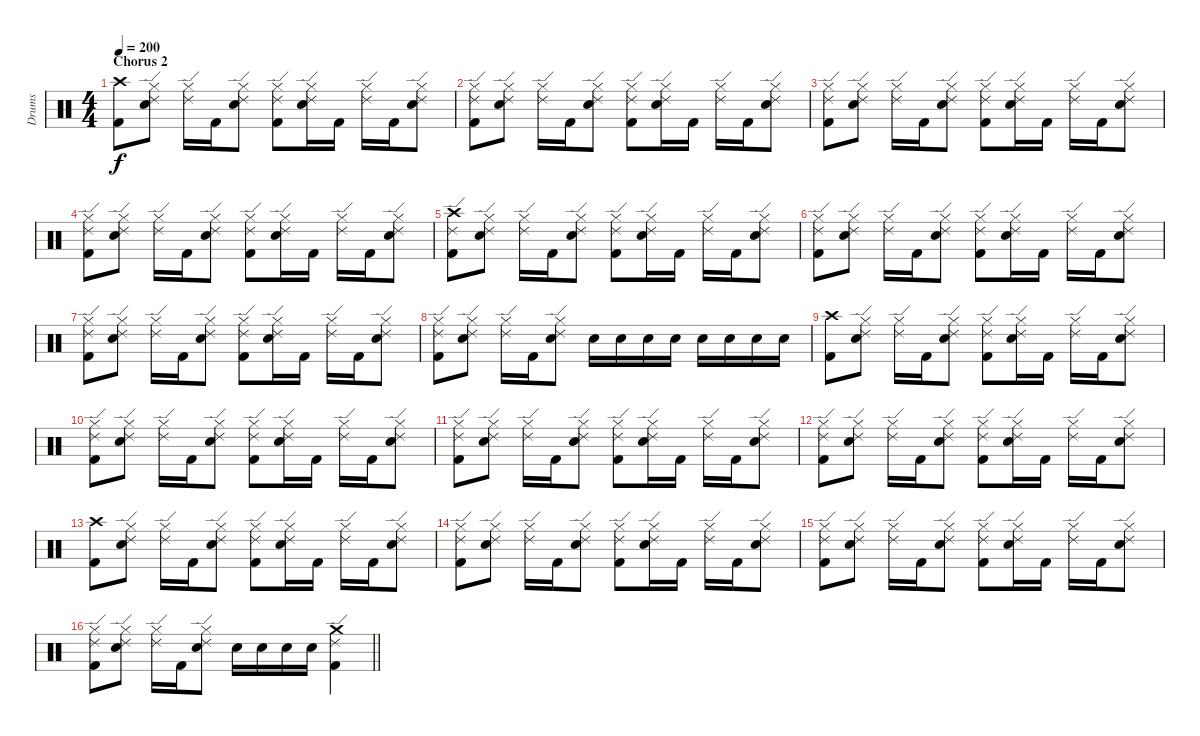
\track ("Drums" "Drums") {instrument percussion}
\staff {score}
\articulation defaults
\ts (4 4)
\section ("" "Chorus 2")
\tempo 200
\clef neutral
\ks c
("Crash high (hit)" "Kick (hit) 2").8{dy f} ("Hi-Hat (closed)" "Ride (edge) 2" "Electric Snare (hit)").8 ("Hi-Hat (closed)" "Ride (edge) 2").16 "Kick (hit) 2".16 ("Hi-Hat (closed)" "Ride (edge) 2" "Electric Snare (hit)").8 ("Hi-Hat (closed)" "Ride (edge) 2" "Kick (hit) 2").8 ("Hi-Hat (closed)" "Ride (edge) 2" "Electric Snare (hit)").16 "Kick (hit) 2".16 ("Hi-Hat (closed)" "Ride (edge) 2").16 "Kick (hit) 2".16 ("Hi-Hat (closed)" "Ride (edge) 2" "Electric Snare (hit)").8 |
("Hi-Hat (closed)" "Ride (edge) 2" "Kick (hit) 2").8 ("Hi-Hat (closed)" "Ride (edge) 2" "Electric Snare (hit)").8 ("Hi-Hat (closed)" "Ride (edge) 2").16 "Kick (hit) 2".16 ("Hi-Hat (closed)" "Ride (edge) 2" "Electric Snare (hit)").8 ("Hi-Hat (closed)" "Ride (edge) 2" "Kick (hit) 2").8 ("Hi-Hat (closed)" "Ride (edge) 2" "Electric Snare (hit)").16 "Kick (hit) 2".16 ("Hi-Hat (closed)" "Ride (edge) 2").16 "Kick (hit) 2".16 ("Hi-Hat (closed)" "Ride (edge) 2" "Electric Snare (hit)").8 |
("Hi-Hat (closed)" "Ride (edge) 2" "Kick (hit) 2").8 ("Hi-Hat (closed)" "Ride (edge) 2" "Electric Snare (hit)").8 ("Hi-Hat (closed)" "Ride (edge) 2").16 "Kick (hit) 2".16 ("Hi-Hat (closed)" "Ride (edge) 2" "Electric Snare (hit)").8 ("Hi-Hat (closed)" "Ride (edge) 2" "Kick (hit) 2").8 ("Hi-Hat (closed)" "Ride (edge) 2" "Electric Snare (hit)").16 "Kick (hit) 2".16 ("Hi-Hat (closed)" "Ride (edge) 2").16 "Kick (hit) 2".16 ("Hi-Hat (closed)" "Ride (edge) 2" "Electric Snare (hit)").8 |
("Hi-Hat (closed)" "Ride (edge) 2" "Kick (hit) 2").8 ("Hi-Hat (closed)" "Ride (edge) 2" "Electric Snare (hit)").8 ("Hi-Hat (closed)" "Ride (edge) 2").16 "Kick (hit) 2".16 ("Hi-Hat (closed)" "Ride (edge) 2" "Electric Snare (hit)").8 ("Hi-Hat (closed)" "Ride (edge) 2" "Kick (hit) 2").8 ("Hi-Hat (closed)" "Ride (edge) 2" "Electric Snare (hit)").16 "Kick (hit) 2".16 ("Hi-Hat (closed)" "Ride (edge) 2").16 "Kick (hit) 2".16 ("Hi-Hat (closed)" "Ride (edge) 2" "Electric Snare (hit)").8 |
("Crash high (hit)" "Ride (edge) 2" "Kick (hit) 2").8 ("Hi-Hat (closed)" "Ride (edge) 2" "Electric Snare (hit)").8 ("Hi-Hat (closed)" "Ride (edge) 2").16 "Kick (hit) 2".16 ("Hi-Hat (closed)" "Ride (edge) 2" "Electric Snare (hit)").8 ("Hi-Hat (closed)" "Ride (edge) 2" "Kick (hit) 2").8 ("Hi-Hat (closed)" "Ride (edge) 2" "Electric Snare (hit)").16 "Kick (hit) 2".16 ("Hi-Hat (closed)" "Ride (edge) 2").16 "Kick (hit) 2".16 ("Hi-Hat (closed)" "Ride (edge) 2" "Electric Snare (hit)").8 |
("Hi-Hat (closed)" "Ride (edge) 2" "Kick (hit) 2").8 ("Hi-Hat (closed)" "Ride (edge) 2" "Electric Snare (hit)").8 ("Hi-Hat (closed)" "Ride (edge) 2").16 "Kick (hit) 2".16 ("Hi-Hat (closed)" "Ride (edge) 2" "Electric Snare (hit)").8 ("Hi-Hat (closed)" "Ride (edge) 2" "Kick (hit) 2").8 ("Hi-Hat (closed)" "Ride (edge) 2" "Electric Snare (hit)").16 "Kick (hit) 2".16 ("Hi-Hat (closed)" "Ride (edge) 2").16 "Kick (hit) 2".16 ("Hi-Hat (closed)" "Ride (edge) 2" "Electric Snare (hit)").8 |
("Hi-Hat (closed)" "Ride (edge) 2" "Kick (hit) 2").8 ("Hi-Hat (closed)" "Ride (edge) 2" "Electric Snare (hit)").8 ("Hi-Hat (closed)" "Ride (edge) 2").16 "Kick (hit) 2".16 ("Hi-Hat (closed)" "Ride (edge) 2" "Electric Snare (hit)").8 ("Hi-Hat (closed)" "Ride (edge) 2" "Kick (hit) 2").8 ("Hi-Hat (closed)" "Ride (edge) 2" "Electric Snare (hit)").16 "Kick (hit) 2".16 ("Hi-Hat (closed)" "Ride (edge) 2").16 "Kick (hit) 2".16 ("Hi-Hat (closed)" "Ride (edge) 2" "Electric Snare (hit)").8 |
("Hi-Hat (closed)" "Ride (edge) 2" "Kick (hit) 2").8 ("Hi-Hat (closed)" "Ride (edge) 2" "Electric Snare (hit)").8 ("Hi-Hat (closed)" "Ride (edge) 2").16 "Kick (hit) 2".16 ("Hi-Hat (closed)" "Ride (edge) 2" "Electric Snare (hit)").8 "Electric Snare (hit)".16 "Electric Snare (hit)".16 "Electric Snare (hit)".16 "Electric Snare (hit)".16 "Electric Snare (hit)".16 "Electric Snare (hit)".16 "Electric Snare (hit)".16 "Electric Snare (hit)".16 |
("Crash high (hit)" "Kick (hit) 2").8 ("Hi-Hat (closed)" "Ride (edge) 2" "Electric Snare (hit)").8 ("Hi-Hat (closed)" "Ride (edge) 2").16 "Kick (hit) 2".16 ("Hi-Hat (closed)" "Ride (edge) 2" "Electric Snare (hit)").8 ("Hi-Hat (closed)" "Ride (edge) 2" "Kick (hit) 2").8 ("Hi-Hat (closed)" "Ride (edge) 2" "Electric Snare (hit)").16 "Kick (hit) 2".16 ("Hi-Hat (closed)" "Ride (edge) 2").16 "Kick (hit) 2".16 ("Hi-Hat (closed)" "Ride (edge) 2" "Electric Snare (hit)").8 |
("Hi-Hat (closed)" "Ride (edge) 2" "Kick (hit) 2").8 ("Hi-Hat (closed)" "Ride (edge) 2" "Electric Snare (hit)").8 ("Hi-Hat (closed)" "Ride (edge) 2").16 "Kick (hit) 2".16 ("Hi-Hat (closed)" "Ride (edge) 2" "Electric Snare (hit)").8 ("Hi-Hat (closed)" "Ride (edge) 2" "Kick (hit) 2").8 ("Hi-Hat (closed)" "Ride (edge) 2" "Electric Snare (hit)").16 "Kick (hit) 2".16 ("Hi-Hat (closed)" "Ride (edge) 2").16 "Kick (hit) 2".16 ("Hi-Hat (closed)" "Ride (edge) 2" "Electric Snare (hit)").8 |
("Hi-Hat (closed)" "Ride (edge) 2" "Kick (hit) 2").8 ("Hi-Hat (closed)" "Ride (edge) 2" "Electric Snare (hit)").8 ("Hi-Hat (closed)" "Ride (edge) 2").16 "Kick (hit) 2".16 ("Hi-Hat (closed)" "Ride (edge) 2" "Electric Snare (hit)").8 ("Hi-Hat (closed)" "Ride (edge) 2" "Kick (hit) 2").8 ("Hi-Hat (closed)" "Ride (edge) 2" "Electric Snare (hit)").16 "Kick (hit) 2".16 ("Hi-Hat (closed)" "Ride (edge) 2").16 "Kick (hit) 2".16 ("Hi-Hat (closed)" "Ride (edge) 2" "Electric Snare (hit)").8 |
("Hi-Hat (closed)" "Ride (edge) 2" "Kick (hit) 2").8 ("Hi-Hat (closed)" "Ride (edge) 2" "Electric Snare (hit)").8 ("Hi-Hat (closed)" "Ride (edge) 2").16 "Kick (hit) 2".16 ("Hi-Hat (closed)" "Ride (edge) 2" "Electric Snare (hit)").8 ("Hi-Hat (closed)" "Ride (edge) 2" "Kick (hit) 2").8 ("Hi-Hat (closed)" "Ride (edge) 2" "Electric Snare (hit)").16 "Kick (hit) 2".16 ("Hi-Hat (closed)" "Ride (edge) 2").16 "Kick (hit) 2".16 ("Hi-Hat (closed)" "Ride (edge) 2" "Electric Snare (hit)").8 |
("Crash high (hit)" "Kick (hit) 2").8 ("Hi-Hat (closed)" "Ride (edge) 2" "Electric Snare (hit)").8 ("Hi-Hat (closed)" "Ride (edge) 2").16 "Kick (hit) 2".16 ("Hi-Hat (closed)" "Ride (edge) 2" "Electric Snare (hit)").8 ("Hi-Hat (closed)" "Ride (edge) 2" "Kick (hit) 2").8 ("Hi-Hat (closed)" "Ride (edge) 2" "Electric Snare (hit)").16 "Kick (hit) 2".16 ("Hi-Hat (closed)" "Ride (edge) 2").16 "Kick (hit) 2".16 ("Hi-Hat (closed)" "Ride (edge) 2" "Electric Snare (hit)").8 |
("Hi-Hat (closed)" "Ride (edge) 2" "Kick (hit) 2").8 ("Hi-Hat (closed)" "Ride (edge) 2" "Electric Snare (hit)").8 ("Hi-Hat (closed)" "Ride (edge) 2").16 "Kick (hit) 2".16 ("Hi-Hat (closed)" "Ride (edge) 2" "Electric Snare (hit)").8 ("Hi-Hat (closed)" "Ride (edge) 2" "Kick (hit) 2").8 ("Hi-Hat (closed)" "Ride (edge) 2" "Electric Snare (hit)").16 "Kick (hit) 2".16 ("Hi-Hat (closed)" "Ride (edge) 2").16 "Kick (hit) 2".16 ("Hi-Hat (closed)" "Ride (edge) 2" "Electric Snare (hit)").8 |
("Hi-Hat (closed)" "Ride (edge) 2" "Kick (hit) 2").8 ("Hi-Hat (closed)" "Ride (edge) 2" "Electric Snare (hit)").8 ("Hi-Hat (closed)" "Ride (edge) 2").16 "Kick (hit) 2".16 ("Hi-Hat (closed)" "Ride (edge) 2" "Electric Snare (hit)").8 ("Hi-Hat (closed)" "Ride (edge) 2" "Kick (hit) 2").8 ("Hi-Hat (closed)" "Ride (edge) 2" "Electric Snare (hit)").16 "Kick (hit) 2".16 ("Hi-Hat (closed)" "Ride (edge) 2").16 "Kick (hit) 2".16 ("Hi-Hat (closed)" "Ride (edge) 2" "Electric Snare (hit)").8 |
\barLineRight lightlight
("Hi-Hat (closed)" "Ride (edge) 2" "Kick (hit) 2").8 ("Hi-Hat (closed)" "Ride (edge) 2" "Electric Snare (hit)").8 ("Hi-Hat (closed)" "Ride (edge) 2").16 "Kick (hit) 2".16 ("Hi-Hat (closed)" "Ride (edge) 2" "Electric Snare (hit)").8 "Electric Snare (hit)".16 "Electric Snare (hit)".16 "Electric Snare (hit)".16 "Electric Snare (hit)".16 ("Crash medium (hit)" "Ride (edge) 2" "Kick (hit) 2").4
